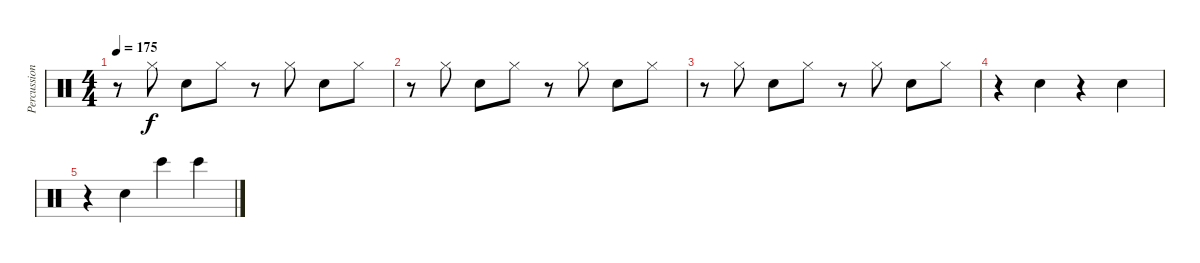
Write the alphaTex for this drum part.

\track ("Percussion" "Percussion") {instrument percussion}
\staff {score}
\articulation defaults
\ts (4 4)
\tempo 175
\clef neutral
\ks c
r.8{dy f} "Hi-Hat (closed)".8 "Hand Clap (hit)".8 "Hi-Hat (closed)".8 r.8 "Hi-Hat (closed)".8 "Hand Clap (hit)".8 "Hi-Hat (closed)".8 |
r.8 "Hi-Hat (closed)".8 "Hand Clap (hit)".8 "Hi-Hat (closed)".8 r.8 "Hi-Hat (closed)".8 "Hand Clap (hit)".8 "Hi-Hat (closed)".8 |
r.8 "Hi-Hat (closed)".8 "Hand Clap (hit)".8 "Hi-Hat (closed)".8 r.8 "Hi-Hat (closed)".8 "Hand Clap (hit)".8 "Hi-Hat (closed)".8 |
r.4 "Hand Clap (hit)".4 r.4 "Hand Clap (hit)".4 |
r.4 "Hand Clap (hit)".4 "Bongo High (hit)".4 "Bongo High (hit)".4
